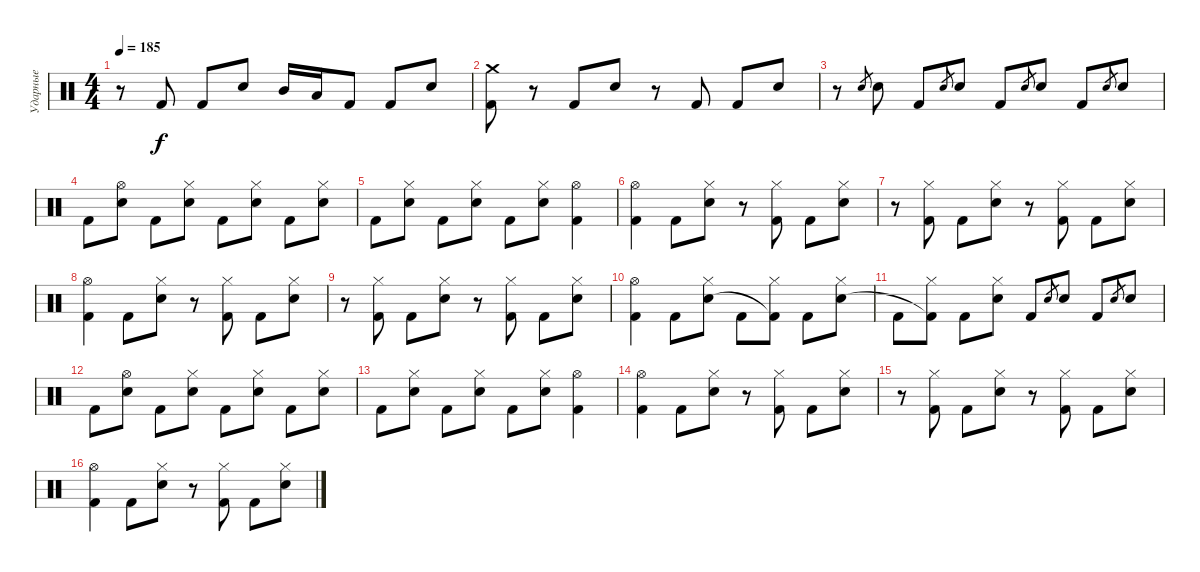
\track ("Ударные" "Ударные") {instrument percussion}
\staff {score}
\articulation defaults
\ts (4 4)
\tempo 185
\clef neutral
\ks c
r.8{dy f} "Kick (hit) 2".8 "Kick (hit) 2".8 "Electric Snare (hit)".8 "Mid Tom (hit)".16 "Low Tom (hit)".16 "Kick (hit) 2".8 "Kick (hit) 2".8 "Electric Snare (hit)".8 |
("Crash medium (hit)" "Kick (hit) 2").8 r.8 "Kick (hit) 2".8 "Electric Snare (hit)".8 r.8 "Kick (hit) 2".8 "Kick (hit) 2".8 "Electric Snare (hit)".8 |
r.8 "Electric Snare (hit)".8{gr} "Electric Snare (hit)".8 "Kick (hit) 2".8 "Electric Snare (hit)".8{gr} "Electric Snare (hit)".8 "Kick (hit) 2".8 "Electric Snare (hit)".8{gr} "Electric Snare (hit)".8 "Kick (hit) 2".8 "Electric Snare (hit)".8{gr} "Electric Snare (hit)".8 |
"Kick (hit) 2".8 ("Hi-Hat (open)" "Electric Snare (hit)").8 "Kick (hit) 2".8 ("Hi-Hat (closed)" "Electric Snare (hit)").8 "Kick (hit) 2".8 ("Hi-Hat (closed)" "Electric Snare (hit)").8 "Kick (hit) 2".8 ("Hi-Hat (closed)" "Electric Snare (hit)").8 |
"Kick (hit) 2".8 ("Hi-Hat (closed)" "Electric Snare (hit)").8 "Kick (hit) 2".8 ("Hi-Hat (closed)" "Electric Snare (hit)").8 "Kick (hit) 2".8 ("Hi-Hat (closed)" "Electric Snare (hit)").8 ("Hi-Hat (open)" "Kick (hit) 2").4 |
("Hi-Hat (open)" "Kick (hit) 2").4 "Kick (hit) 2".8 ("Hi-Hat (closed)" "Electric Snare (hit)").8 r.8 ("Hi-Hat (closed)" "Kick (hit) 2").8 "Kick (hit) 2".8 ("Hi-Hat (closed)" "Electric Snare (hit)").8 |
r.8 ("Hi-Hat (closed)" "Kick (hit) 2").8 "Kick (hit) 2".8 ("Hi-Hat (closed)" "Electric Snare (hit)").8 r.8 ("Hi-Hat (closed)" "Kick (hit) 2").8 "Kick (hit) 2".8 ("Hi-Hat (closed)" "Electric Snare (hit)").8 |
("Hi-Hat (open)" "Kick (hit) 2").4 "Kick (hit) 2".8 ("Hi-Hat (closed)" "Electric Snare (hit)").8 r.8 ("Hi-Hat (closed)" "Kick (hit) 2").8 "Kick (hit) 2".8 ("Hi-Hat (closed)" "Electric Snare (hit)").8 |
r.8 ("Hi-Hat (closed)" "Kick (hit) 2").8 "Kick (hit) 2".8 ("Hi-Hat (closed)" "Electric Snare (hit)").8 r.8 ("Hi-Hat (closed)" "Kick (hit) 2").8 "Kick (hit) 2".8 ("Hi-Hat (closed)" "Electric Snare (hit)").8 |
("Hi-Hat (open)" "Kick (hit) 2").4 "Kick (hit) 2".8 ("Hi-Hat (closed)" "Electric Snare (hit)").8 "Kick (hit) 2".8 ("Hi-Hat (closed)" "Kick (hit) 2"{t}).8 "Kick (hit) 2".8 ("Hi-Hat (closed)" "Electric Snare (hit)").8 |
"Kick (hit) 2".8 ("Hi-Hat (closed)" "Kick (hit) 2"{t}).8 "Kick (hit) 2".8 ("Hi-Hat (closed)" "Electric Snare (hit)").8 "Kick (hit) 2".8 "Electric Snare (hit)".8{gr} "Electric Snare (hit)".8 "Kick (hit) 2".8 "Electric Snare (hit)".8{gr} "Electric Snare (hit)".8 |
"Kick (hit) 2".8 ("Hi-Hat (open)" "Electric Snare (hit)").8 "Kick (hit) 2".8 ("Hi-Hat (closed)" "Electric Snare (hit)").8 "Kick (hit) 2".8 ("Hi-Hat (closed)" "Electric Snare (hit)").8 "Kick (hit) 2".8 ("Hi-Hat (closed)" "Electric Snare (hit)").8 |
"Kick (hit) 2".8 ("Hi-Hat (closed)" "Electric Snare (hit)").8 "Kick (hit) 2".8 ("Hi-Hat (closed)" "Electric Snare (hit)").8 "Kick (hit) 2".8 ("Hi-Hat (closed)" "Electric Snare (hit)").8 ("Hi-Hat (open)" "Kick (hit) 2").4 |
("Hi-Hat (open)" "Kick (hit) 2").4 "Kick (hit) 2".8 ("Hi-Hat (closed)" "Electric Snare (hit)").8 r.8 ("Hi-Hat (closed)" "Kick (hit) 2").8 "Kick (hit) 2".8 ("Hi-Hat (closed)" "Electric Snare (hit)").8 |
r.8 ("Hi-Hat (closed)" "Kick (hit) 2").8 "Kick (hit) 2".8 ("Hi-Hat (closed)" "Electric Snare (hit)").8 r.8 ("Hi-Hat (closed)" "Kick (hit) 2").8 "Kick (hit) 2".8 ("Hi-Hat (closed)" "Electric Snare (hit)").8 |
("Hi-Hat (open)" "Kick (hit) 2").4 "Kick (hit) 2".8 ("Hi-Hat (closed)" "Electric Snare (hit)").8 r.8 ("Hi-Hat (closed)" "Kick (hit) 2").8 "Kick (hit) 2".8 ("Hi-Hat (closed)" "Electric Snare (hit)").8
